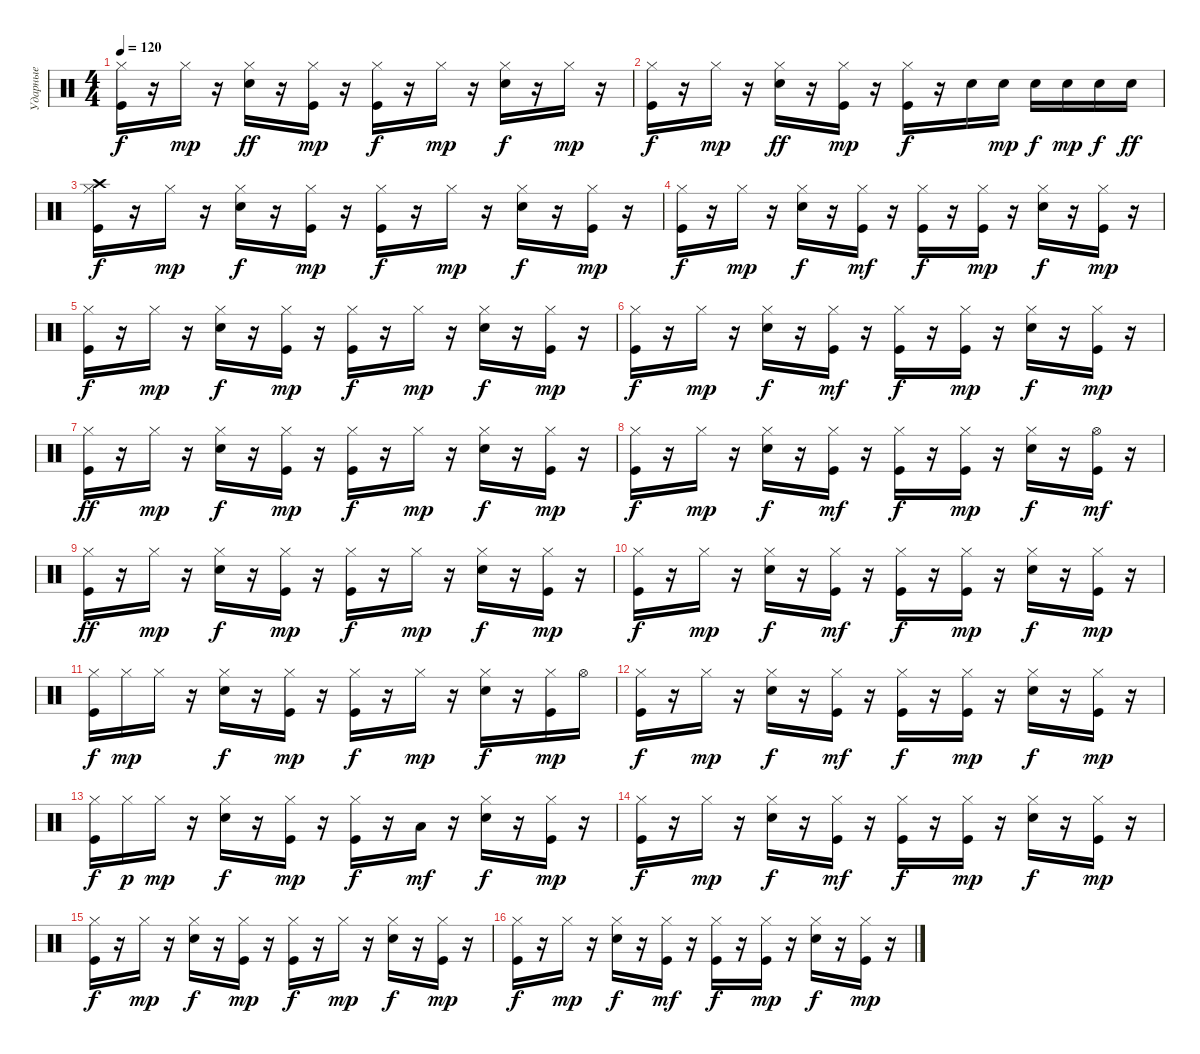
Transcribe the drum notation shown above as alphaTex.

\track ("Ударные" "Ударные") {instrument percussion}
\staff {score}
\articulation defaults
\ts (4 4)
\tempo 120
\clef neutral
\ks c
("Kick (hit)" "Hi-Hat (closed)").16{dy f} r.16 "Hi-Hat (closed)".16{dy mp} r.16 ("Snare (hit) 2" "Hi-Hat (closed)").16{dy ff} r.16 ("Kick (hit)" "Hi-Hat (closed)").16{dy mp} r.16 ("Kick (hit)" "Hi-Hat (closed)").16{dy f} r.16 "Hi-Hat (closed)".16{dy mp} r.16 ("Snare (hit) 2" "Hi-Hat (closed)").16{dy f} r.16 "Hi-Hat (closed)".16{dy mp} r.16 |
("Kick (hit)" "Hi-Hat (closed)").16{dy f} r.16 "Hi-Hat (closed)".16{dy mp} r.16 ("Snare (hit) 2" "Hi-Hat (closed)").16{dy ff} r.16 ("Kick (hit)" "Hi-Hat (closed)").16{dy mp} r.16 ("Kick (hit)" "Hi-Hat (closed)").16{dy f} r.16 "Snare (hit) 2".16 "Snare (hit) 2".16{dy mp} "Snare (hit) 2".16{dy f} "Snare (hit) 2".16{dy mp} "Snare (hit) 2".16{dy f} "Snare (hit) 2".16{dy ff} |
("Kick (hit)" "Hi-Hat (closed)" "Crash high (hit)").16{dy f} r.16 "Hi-Hat (closed)".16{dy mp} r.16 ("Snare (hit) 2" "Hi-Hat (closed)").16{dy f} r.16 ("Kick (hit)" "Hi-Hat (closed)").16{dy mp} r.16 ("Kick (hit)" "Hi-Hat (closed)").16{dy f} r.16 "Hi-Hat (closed)".16{dy mp} r.16 ("Snare (hit) 2" "Hi-Hat (closed)").16{dy f} r.16 ("Kick (hit)" "Hi-Hat (closed)").16{dy mp} r.16 |
("Kick (hit)" "Hi-Hat (closed)").16{dy f} r.16 "Hi-Hat (closed)".16{dy mp} r.16 ("Snare (hit) 2" "Hi-Hat (closed)").16{dy f} r.16 ("Kick (hit)" "Hi-Hat (closed)").16{dy mf} r.16 ("Kick (hit)" "Hi-Hat (closed)").16{dy f} r.16 ("Kick (hit)" "Hi-Hat (closed)").16{dy mp} r.16 ("Snare (hit) 2" "Hi-Hat (closed)").16{dy f} r.16 ("Kick (hit)" "Hi-Hat (closed)").16{dy mp} r.16 |
("Kick (hit)" "Hi-Hat (closed)").16{dy f} r.16 "Hi-Hat (closed)".16{dy mp} r.16 ("Snare (hit) 2" "Hi-Hat (closed)").16{dy f} r.16 ("Kick (hit)" "Hi-Hat (closed)").16{dy mp} r.16 ("Kick (hit)" "Hi-Hat (closed)").16{dy f} r.16 "Hi-Hat (closed)".16{dy mp} r.16 ("Snare (hit) 2" "Hi-Hat (closed)").16{dy f} r.16 ("Kick (hit)" "Hi-Hat (closed)").16{dy mp} r.16 |
("Kick (hit)" "Hi-Hat (closed)").16{dy f} r.16 "Hi-Hat (closed)".16{dy mp} r.16 ("Snare (hit) 2" "Hi-Hat (closed)").16{dy f} r.16 ("Kick (hit)" "Hi-Hat (closed)").16{dy mf} r.16 ("Kick (hit)" "Hi-Hat (closed)").16{dy f} r.16 ("Kick (hit)" "Hi-Hat (closed)").16{dy mp} r.16 ("Snare (hit) 2" "Hi-Hat (closed)").16{dy f} r.16 ("Kick (hit)" "Hi-Hat (closed)").16{dy mp} r.16 |
("Kick (hit)" "Hi-Hat (closed)").16{dy ff} r.16 "Hi-Hat (closed)".16{dy mp} r.16 ("Snare (hit) 2" "Hi-Hat (closed)").16{dy f} r.16 ("Kick (hit)" "Hi-Hat (closed)").16{dy mp} r.16 ("Kick (hit)" "Hi-Hat (closed)").16{dy f} r.16 "Hi-Hat (closed)".16{dy mp} r.16 ("Snare (hit) 2" "Hi-Hat (closed)").16{dy f} r.16 ("Kick (hit)" "Hi-Hat (closed)").16{dy mp} r.16 |
("Kick (hit)" "Hi-Hat (closed)").16{dy f} r.16 "Hi-Hat (closed)".16{dy mp} r.16 ("Snare (hit) 2" "Hi-Hat (closed)").16{dy f} r.16 ("Kick (hit)" "Hi-Hat (closed)").16{dy mf} r.16 ("Kick (hit)" "Hi-Hat (closed)").16{dy f} r.16 ("Kick (hit)" "Hi-Hat (closed)").16{dy mp} r.16 ("Snare (hit) 2" "Hi-Hat (closed)").16{dy f} r.16 ("Kick (hit)" "Hi-Hat (open)").16{dy mf} r.16 |
("Kick (hit)" "Hi-Hat (closed)").16{dy ff} r.16 "Hi-Hat (closed)".16{dy mp} r.16 ("Snare (hit) 2" "Hi-Hat (closed)").16{dy f} r.16 ("Kick (hit)" "Hi-Hat (closed)").16{dy mp} r.16 ("Kick (hit)" "Hi-Hat (closed)").16{dy f} r.16 "Hi-Hat (closed)".16{dy mp} r.16 ("Snare (hit) 2" "Hi-Hat (closed)").16{dy f} r.16 ("Kick (hit)" "Hi-Hat (closed)").16{dy mp} r.16 |
("Kick (hit)" "Hi-Hat (closed)").16{dy f} r.16 "Hi-Hat (closed)".16{dy mp} r.16 ("Snare (hit) 2" "Hi-Hat (closed)").16{dy f} r.16 ("Kick (hit)" "Hi-Hat (closed)").16{dy mf} r.16 ("Kick (hit)" "Hi-Hat (closed)").16{dy f} r.16 ("Kick (hit)" "Hi-Hat (closed)").16{dy mp} r.16 ("Snare (hit) 2" "Hi-Hat (closed)").16{dy f} r.16 ("Kick (hit)" "Hi-Hat (closed)").16{dy mp} r.16 |
("Kick (hit)" "Hi-Hat (closed)").16{dy f} "Hi-Hat (closed)".16{dy mp} "Hi-Hat (closed)".16 r.16 ("Snare (hit) 2" "Hi-Hat (closed)").16{dy f} r.16 ("Kick (hit)" "Hi-Hat (closed)").16{dy mp} r.16 ("Kick (hit)" "Hi-Hat (closed)").16{dy f} r.16 "Hi-Hat (closed)".16{dy mp} r.16 ("Snare (hit) 2" "Hi-Hat (closed)").16{dy f} r.16 ("Kick (hit)" "Hi-Hat (closed)").16{dy mp} "Hi-Hat (open)".16 |
("Kick (hit)" "Hi-Hat (closed)").16{dy f} r.16 "Hi-Hat (closed)".16{dy mp} r.16 ("Snare (hit) 2" "Hi-Hat (closed)").16{dy f} r.16 ("Kick (hit)" "Hi-Hat (closed)").16{dy mf} r.16 ("Kick (hit)" "Hi-Hat (closed)").16{dy f} r.16 ("Kick (hit)" "Hi-Hat (closed)").16{dy mp} r.16 ("Snare (hit) 2" "Hi-Hat (closed)").16{dy f} r.16 ("Kick (hit)" "Hi-Hat (closed)").16{dy mp} r.16 |
("Kick (hit)" "Hi-Hat (closed)").16{dy f} "Hi-Hat (closed)".16{dy p} "Hi-Hat (closed)".16{dy mp} r.16 ("Snare (hit) 2" "Hi-Hat (closed)").16{dy f} r.16 ("Kick (hit)" "Hi-Hat (closed)").16{dy mp} r.16 ("Kick (hit)" "Hi-Hat (closed)").16{dy f} r.16 "Low Floor Tom (hit)".16{dy mf} r.16 ("Snare (hit) 2" "Hi-Hat (closed)").16{dy f} r.16 ("Kick (hit)" "Hi-Hat (closed)").16{dy mp} r.16 |
("Kick (hit)" "Hi-Hat (closed)").16{dy f} r.16 "Hi-Hat (closed)".16{dy mp} r.16 ("Snare (hit) 2" "Hi-Hat (closed)").16{dy f} r.16 ("Kick (hit)" "Hi-Hat (closed)").16{dy mf} r.16 ("Kick (hit)" "Hi-Hat (closed)").16{dy f} r.16 ("Kick (hit)" "Hi-Hat (closed)").16{dy mp} r.16 ("Snare (hit) 2" "Hi-Hat (closed)").16{dy f} r.16 ("Kick (hit)" "Hi-Hat (closed)").16{dy mp} r.16 |
("Kick (hit)" "Hi-Hat (closed)").16{dy f} r.16 "Hi-Hat (closed)".16{dy mp} r.16 ("Snare (hit) 2" "Hi-Hat (closed)").16{dy f} r.16 ("Kick (hit)" "Hi-Hat (closed)").16{dy mp} r.16 ("Kick (hit)" "Hi-Hat (closed)").16{dy f} r.16 "Hi-Hat (closed)".16{dy mp} r.16 ("Snare (hit) 2" "Hi-Hat (closed)").16{dy f} r.16 ("Kick (hit)" "Hi-Hat (closed)").16{dy mp} r.16 |
("Kick (hit)" "Hi-Hat (closed)").16{dy f} r.16 "Hi-Hat (closed)".16{dy mp} r.16 ("Snare (hit) 2" "Hi-Hat (closed)").16{dy f} r.16 ("Kick (hit)" "Hi-Hat (closed)").16{dy mf} r.16 ("Kick (hit)" "Hi-Hat (closed)").16{dy f} r.16 ("Kick (hit)" "Hi-Hat (closed)").16{dy mp} r.16 ("Snare (hit) 2" "Hi-Hat (closed)").16{dy f} r.16 ("Kick (hit)" "Hi-Hat (closed)").16{dy mp} r.16
